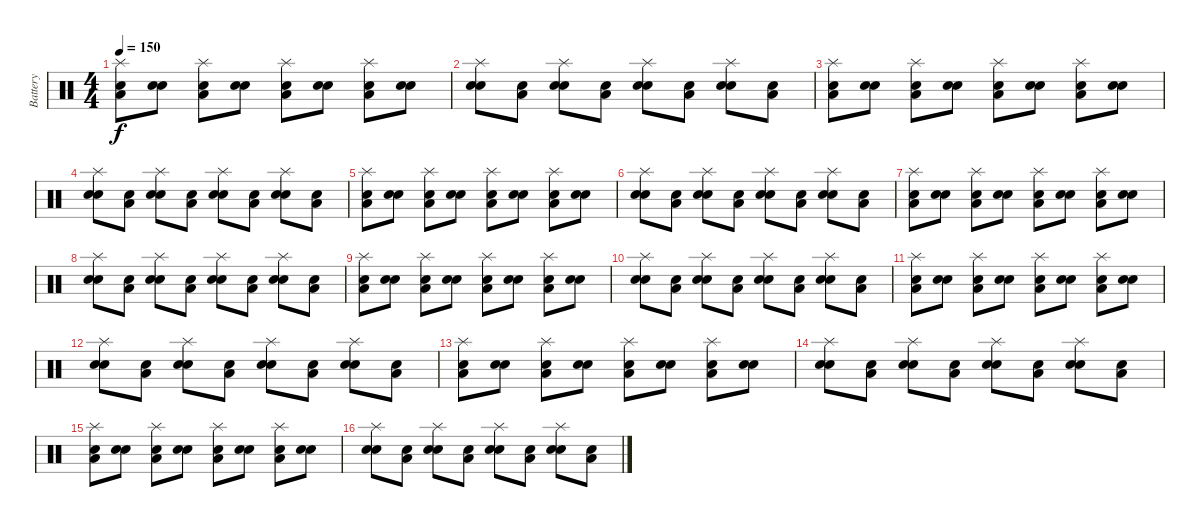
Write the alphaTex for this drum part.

\track ("Battery" "Battery") {instrument percussion}
\staff {score}
\articulation defaults
\ts (4 4)
\tempo 150
\clef neutral
\ks c
("Snare (hit) 2" "Splash (hit)" "Low Floor Tom (hit)").8{dy f} ("Snare (hit) 2" "Electric Snare (hit)").8 ("Snare (hit) 2" "Splash (hit)" "Low Floor Tom (hit)").8 ("Snare (hit) 2" "Electric Snare (hit)").8 ("Snare (hit) 2" "Splash (hit)" "Low Floor Tom (hit)").8 ("Snare (hit) 2" "Electric Snare (hit)").8 ("Snare (hit) 2" "Splash (hit)" "Low Floor Tom (hit)").8 ("Snare (hit) 2" "Electric Snare (hit)").8 |
("Snare (hit) 2" "Splash (hit)" "Electric Snare (hit)").8 ("Snare (hit) 2" "Low Floor Tom (hit)").8 ("Snare (hit) 2" "Splash (hit)" "Electric Snare (hit)").8 ("Snare (hit) 2" "Low Floor Tom (hit)").8 ("Snare (hit) 2" "Splash (hit)" "Electric Snare (hit)").8 ("Snare (hit) 2" "Low Floor Tom (hit)").8 ("Snare (hit) 2" "Splash (hit)" "Electric Snare (hit)").8 ("Snare (hit) 2" "Low Floor Tom (hit)").8 |
("Snare (hit) 2" "Splash (hit)" "Low Floor Tom (hit)").8 ("Snare (hit) 2" "Electric Snare (hit)").8 ("Snare (hit) 2" "Splash (hit)" "Low Floor Tom (hit)").8 ("Snare (hit) 2" "Electric Snare (hit)").8 ("Snare (hit) 2" "Splash (hit)" "Low Floor Tom (hit)").8 ("Snare (hit) 2" "Electric Snare (hit)").8 ("Snare (hit) 2" "Splash (hit)" "Low Floor Tom (hit)").8 ("Snare (hit) 2" "Electric Snare (hit)").8 |
("Snare (hit) 2" "Splash (hit)" "Electric Snare (hit)").8 ("Snare (hit) 2" "Low Floor Tom (hit)").8 ("Snare (hit) 2" "Splash (hit)" "Electric Snare (hit)").8 ("Snare (hit) 2" "Low Floor Tom (hit)").8 ("Snare (hit) 2" "Splash (hit)" "Electric Snare (hit)").8 ("Snare (hit) 2" "Low Floor Tom (hit)").8 ("Snare (hit) 2" "Splash (hit)" "Electric Snare (hit)").8 ("Snare (hit) 2" "Low Floor Tom (hit)").8 |
("Snare (hit) 2" "Splash (hit)" "Low Floor Tom (hit)").8 ("Snare (hit) 2" "Electric Snare (hit)").8 ("Snare (hit) 2" "Splash (hit)" "Low Floor Tom (hit)").8 ("Snare (hit) 2" "Electric Snare (hit)").8 ("Snare (hit) 2" "Splash (hit)" "Low Floor Tom (hit)").8 ("Snare (hit) 2" "Electric Snare (hit)").8 ("Snare (hit) 2" "Splash (hit)" "Low Floor Tom (hit)").8 ("Snare (hit) 2" "Electric Snare (hit)").8 |
("Snare (hit) 2" "Splash (hit)" "Electric Snare (hit)").8 ("Snare (hit) 2" "Low Floor Tom (hit)").8 ("Snare (hit) 2" "Splash (hit)" "Electric Snare (hit)").8 ("Snare (hit) 2" "Low Floor Tom (hit)").8 ("Snare (hit) 2" "Splash (hit)" "Electric Snare (hit)").8 ("Snare (hit) 2" "Low Floor Tom (hit)").8 ("Snare (hit) 2" "Splash (hit)" "Electric Snare (hit)").8 ("Snare (hit) 2" "Low Floor Tom (hit)").8 |
("Snare (hit) 2" "Splash (hit)" "Low Floor Tom (hit)").8 ("Snare (hit) 2" "Electric Snare (hit)").8 ("Snare (hit) 2" "Splash (hit)" "Low Floor Tom (hit)").8 ("Snare (hit) 2" "Electric Snare (hit)").8 ("Snare (hit) 2" "Splash (hit)" "Low Floor Tom (hit)").8 ("Snare (hit) 2" "Electric Snare (hit)").8 ("Snare (hit) 2" "Splash (hit)" "Low Floor Tom (hit)").8 ("Snare (hit) 2" "Electric Snare (hit)").8 |
("Snare (hit) 2" "Splash (hit)" "Electric Snare (hit)").8 ("Snare (hit) 2" "Low Floor Tom (hit)").8 ("Snare (hit) 2" "Splash (hit)" "Electric Snare (hit)").8 ("Snare (hit) 2" "Low Floor Tom (hit)").8 ("Snare (hit) 2" "Splash (hit)" "Electric Snare (hit)").8 ("Snare (hit) 2" "Low Floor Tom (hit)").8 ("Snare (hit) 2" "Splash (hit)" "Electric Snare (hit)").8 ("Snare (hit) 2" "Low Floor Tom (hit)").8 |
("Snare (hit) 2" "Splash (hit)" "Low Floor Tom (hit)").8 ("Snare (hit) 2" "Electric Snare (hit)").8 ("Snare (hit) 2" "Splash (hit)" "Low Floor Tom (hit)").8 ("Snare (hit) 2" "Electric Snare (hit)").8 ("Snare (hit) 2" "Splash (hit)" "Low Floor Tom (hit)").8 ("Snare (hit) 2" "Electric Snare (hit)").8 ("Snare (hit) 2" "Splash (hit)" "Low Floor Tom (hit)").8 ("Snare (hit) 2" "Electric Snare (hit)").8 |
("Snare (hit) 2" "Splash (hit)" "Electric Snare (hit)").8 ("Snare (hit) 2" "Low Floor Tom (hit)").8 ("Snare (hit) 2" "Splash (hit)" "Electric Snare (hit)").8 ("Snare (hit) 2" "Low Floor Tom (hit)").8 ("Snare (hit) 2" "Splash (hit)" "Electric Snare (hit)").8 ("Snare (hit) 2" "Low Floor Tom (hit)").8 ("Snare (hit) 2" "Splash (hit)" "Electric Snare (hit)").8 ("Snare (hit) 2" "Low Floor Tom (hit)").8 |
("Snare (hit) 2" "Splash (hit)" "Low Floor Tom (hit)").8 ("Snare (hit) 2" "Electric Snare (hit)").8 ("Snare (hit) 2" "Splash (hit)" "Low Floor Tom (hit)").8 ("Snare (hit) 2" "Electric Snare (hit)").8 ("Snare (hit) 2" "Splash (hit)" "Low Floor Tom (hit)").8 ("Snare (hit) 2" "Electric Snare (hit)").8 ("Snare (hit) 2" "Splash (hit)" "Low Floor Tom (hit)").8 ("Snare (hit) 2" "Electric Snare (hit)").8 |
("Snare (hit) 2" "Splash (hit)" "Electric Snare (hit)").8 ("Snare (hit) 2" "Low Floor Tom (hit)").8 ("Snare (hit) 2" "Splash (hit)" "Electric Snare (hit)").8 ("Snare (hit) 2" "Low Floor Tom (hit)").8 ("Snare (hit) 2" "Splash (hit)" "Electric Snare (hit)").8 ("Snare (hit) 2" "Low Floor Tom (hit)").8 ("Snare (hit) 2" "Splash (hit)" "Electric Snare (hit)").8 ("Snare (hit) 2" "Low Floor Tom (hit)").8 |
("Snare (hit) 2" "Splash (hit)" "Low Floor Tom (hit)").8 ("Snare (hit) 2" "Electric Snare (hit)").8 ("Snare (hit) 2" "Splash (hit)" "Low Floor Tom (hit)").8 ("Snare (hit) 2" "Electric Snare (hit)").8 ("Snare (hit) 2" "Splash (hit)" "Low Floor Tom (hit)").8 ("Snare (hit) 2" "Electric Snare (hit)").8 ("Snare (hit) 2" "Splash (hit)" "Low Floor Tom (hit)").8 ("Snare (hit) 2" "Electric Snare (hit)").8 |
("Snare (hit) 2" "Splash (hit)" "Electric Snare (hit)").8 ("Snare (hit) 2" "Low Floor Tom (hit)").8 ("Snare (hit) 2" "Splash (hit)" "Electric Snare (hit)").8 ("Snare (hit) 2" "Low Floor Tom (hit)").8 ("Snare (hit) 2" "Splash (hit)" "Electric Snare (hit)").8 ("Snare (hit) 2" "Low Floor Tom (hit)").8 ("Snare (hit) 2" "Splash (hit)" "Electric Snare (hit)").8 ("Snare (hit) 2" "Low Floor Tom (hit)").8 |
("Snare (hit) 2" "Splash (hit)" "Low Floor Tom (hit)").8 ("Snare (hit) 2" "Electric Snare (hit)").8 ("Snare (hit) 2" "Splash (hit)" "Low Floor Tom (hit)").8 ("Snare (hit) 2" "Electric Snare (hit)").8 ("Snare (hit) 2" "Splash (hit)" "Low Floor Tom (hit)").8 ("Snare (hit) 2" "Electric Snare (hit)").8 ("Snare (hit) 2" "Splash (hit)" "Low Floor Tom (hit)").8 ("Snare (hit) 2" "Electric Snare (hit)").8 |
("Snare (hit) 2" "Splash (hit)" "Electric Snare (hit)").8 ("Snare (hit) 2" "Low Floor Tom (hit)").8 ("Snare (hit) 2" "Splash (hit)" "Electric Snare (hit)").8 ("Snare (hit) 2" "Low Floor Tom (hit)").8 ("Snare (hit) 2" "Splash (hit)" "Electric Snare (hit)").8 ("Snare (hit) 2" "Low Floor Tom (hit)").8 ("Snare (hit) 2" "Splash (hit)" "Electric Snare (hit)").8 ("Snare (hit) 2" "Low Floor Tom (hit)").8
